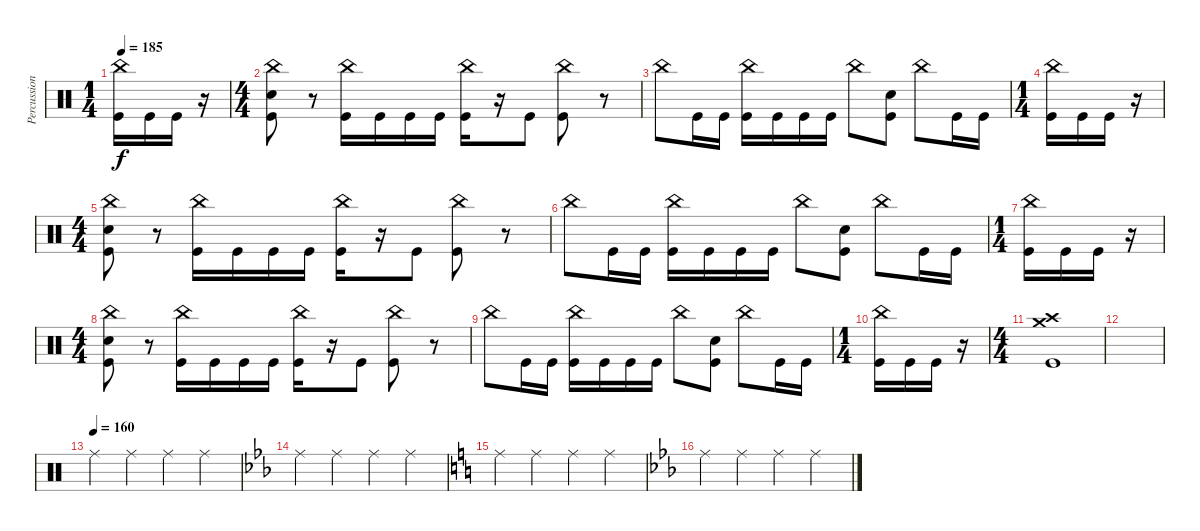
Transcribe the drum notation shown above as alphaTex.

\track ("Percussion" "Percussion") {instrument percussion}
\staff {score}
\articulation defaults
\ts (1 4)
\tempo 185
\clef neutral
\ks c
("China (hit)" "Kick (hit)").16{dy f} "Kick (hit)".16 "Kick (hit)".16 r.16 |
\ts (4 4)
("Electric Snare (hit)" "China (hit)" "Kick (hit)").8 r.8 ("China (hit)" "Kick (hit)").16 "Kick (hit)".16 "Kick (hit)".16 "Kick (hit)".16 ("China (hit)" "Kick (hit)").16 r.16 "Kick (hit)".8 ("China (hit)" "Kick (hit)").8 r.8 |
"China (hit)".8 "Kick (hit)".16 "Kick (hit)".16 ("China (hit)" "Kick (hit)").16 "Kick (hit)".16 "Kick (hit)".16 "Kick (hit)".16 "China (hit)".8 ("Electric Snare (hit)" "Kick (hit)").8 "China (hit)".8 "Kick (hit)".16 "Kick (hit)".16 |
\ts (1 4)
("China (hit)" "Kick (hit)").16 "Kick (hit)".16 "Kick (hit)".16 r.16 |
\ts (4 4)
("Electric Snare (hit)" "China (hit)" "Kick (hit)").8 r.8 ("China (hit)" "Kick (hit)").16 "Kick (hit)".16 "Kick (hit)".16 "Kick (hit)".16 ("China (hit)" "Kick (hit)").16 r.16 "Kick (hit)".8 ("China (hit)" "Kick (hit)").8 r.8 |
"China (hit)".8 "Kick (hit)".16 "Kick (hit)".16 ("China (hit)" "Kick (hit)").16 "Kick (hit)".16 "Kick (hit)".16 "Kick (hit)".16 "China (hit)".8 ("Electric Snare (hit)" "Kick (hit)").8 "China (hit)".8 "Kick (hit)".16 "Kick (hit)".16 |
\ts (1 4)
("China (hit)" "Kick (hit)").16 "Kick (hit)".16 "Kick (hit)".16 r.16 |
\ts (4 4)
("Electric Snare (hit)" "China (hit)" "Kick (hit)").8 r.8 ("China (hit)" "Kick (hit)").16 "Kick (hit)".16 "Kick (hit)".16 "Kick (hit)".16 ("China (hit)" "Kick (hit)").16 r.16 "Kick (hit)".8 ("China (hit)" "Kick (hit)").8 r.8 |
"China (hit)".8 "Kick (hit)".16 "Kick (hit)".16 ("China (hit)" "Kick (hit)").16 "Kick (hit)".16 "Kick (hit)".16 "Kick (hit)".16 "China (hit)".8 ("Electric Snare (hit)" "Kick (hit)").8 "China (hit)".8 "Kick (hit)".16 "Kick (hit)".16 |
\ts (1 4)
("China (hit)" "Kick (hit)").16 "Kick (hit)".16 "Kick (hit)".16 r.16 |
\ts (4 4)
("Crash medium (hit)" "Crash high (hit)" "Kick (hit)").1 |
|
\tempo (160)
"Ride (middle)".4 "Ride (middle)".4 "Ride (middle)".4 "Ride (middle)".4 |
\ks cminor "Ride (middle)".4 "Ride (middle)".4 "Ride (middle)".4 "Ride (middle)".4
|
\ks c "Ride (middle)".4 "Ride (middle)".4 "Ride (middle)".4 "Ride (middle)".4
|
\ks cminor "Ride (middle)".4 "Ride (middle)".4 "Ride (middle)".4 "Ride (middle)".4
